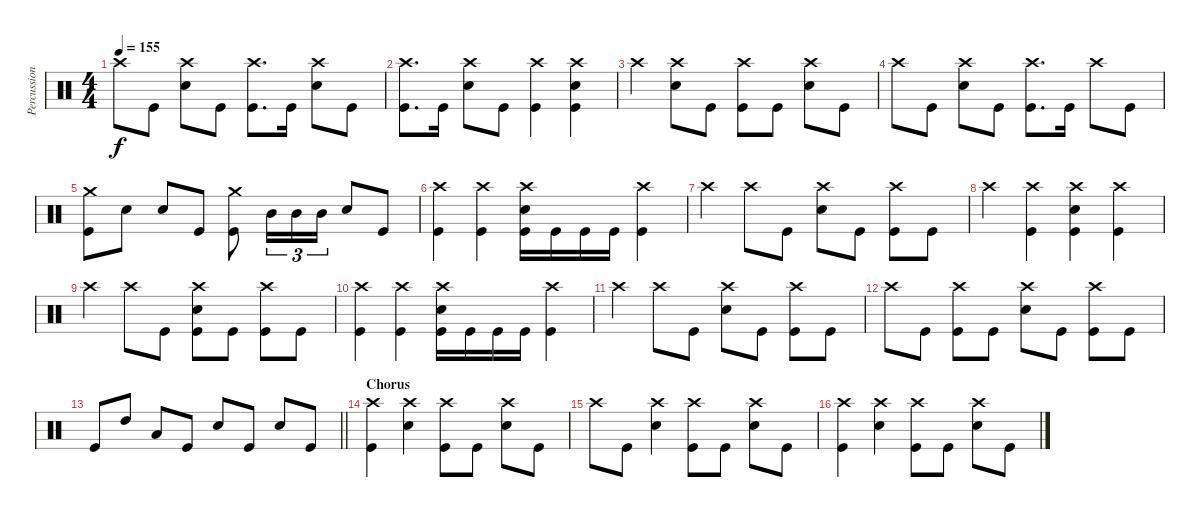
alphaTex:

\track ("Percussion" "Percussion") {instrument percussion}
\staff {score}
\articulation defaults
\ts (4 4)
\tempo 155
\clef neutral
\ks c "Crash high (hit)".8{dy f} "Kick (hit)".8
("Crash high (hit)" "Snare (hit) 2").8 "Kick (hit)".8 ("Crash high (hit)" "Kick (hit)").8{d} "Kick (hit)".16 ("Crash high (hit)" "Snare (hit) 2").8 "Kick (hit)".8 |
("Crash high (hit)" "Kick (hit)").8{d} "Kick (hit)".16 ("Crash high (hit)" "Snare (hit) 2").8 "Kick (hit)".8 ("Crash high (hit)" "Kick (hit)").4 ("Crash high (hit)" "Snare (hit) 2" "Kick (hit)").4 |
"Crash high (hit)".4 ("Crash high (hit)" "Snare (hit) 2").8 "Kick (hit)".8 ("Crash high (hit)" "Kick (hit)").8 "Kick (hit)".8 ("Crash high (hit)" "Snare (hit) 2").8 "Kick (hit)".8 |
"Crash high (hit)".8 "Kick (hit)".8 ("Crash high (hit)" "Snare (hit) 2").8 "Kick (hit)".8 ("Crash high (hit)" "Kick (hit)").8{d} "Kick (hit)".16 "Crash high (hit)".8 "Kick (hit)".8 |
("Crash medium (hit)" "Kick (hit)").8 "Snare (hit) 2".8 "Snare (hit) 2".8 "Kick (hit)".8 ("Crash medium (hit)" "Kick (hit)").8 "Mid Tom (hit)".16{tu (3 2)} "Mid Tom (hit)".16{tu (3 2)} "Mid Tom (hit)".16{tu (3 2)} "Snare (hit) 2".8 "Kick (hit)".8 |
("Crash high (hit)" "Kick (hit)").4 ("Crash high (hit)" "Kick (hit)").4 ("Crash high (hit)" "Snare (hit) 2" "Kick (hit)").16 "Kick (hit)".16 "Kick (hit)".16 "Kick (hit)".16 ("Crash high (hit)" "Kick (hit)").4 |
"Crash high (hit)".4 "Crash high (hit)".8 "Kick (hit)".8 ("Crash high (hit)" "Snare (hit) 2").8 "Kick (hit)".8 ("Crash high (hit)" "Kick (hit)").8 "Kick (hit)".8 |
"Crash high (hit)".4 ("Crash high (hit)" "Kick (hit)").4 ("Crash high (hit)" "Snare (hit) 2" "Kick (hit)").4 ("Crash high (hit)" "Kick (hit)").4 |
"Crash high (hit)".4 "Crash high (hit)".8 "Kick (hit)".8 ("Crash high (hit)" "Snare (hit) 2" "Kick (hit)").8 "Kick (hit)".8 ("Crash high (hit)" "Kick (hit)").8 "Kick (hit)".8 |
("Crash high (hit)" "Kick (hit)").4 ("Crash high (hit)" "Kick (hit)").4 ("Crash high (hit)" "Snare (hit) 2" "Kick (hit)").16 "Kick (hit)".16 "Kick (hit)".16 "Kick (hit)".16 ("Crash high (hit)" "Kick (hit)").4 |
"Crash high (hit)".4 "Crash high (hit)".8 "Kick (hit)".8 ("Crash high (hit)" "Snare (hit) 2").8 "Kick (hit)".8 ("Crash high (hit)" "Kick (hit)").8 "Kick (hit)".8 |
"Crash high (hit)".8 "Kick (hit)".8 ("Crash high (hit)" "Kick (hit)").8 "Kick (hit)".8 ("Crash high (hit)" "Snare (hit) 2").8 "Kick (hit)".8 ("Crash high (hit)" "Kick (hit)").8 "Kick (hit)".8 |
\barLineRight lightlight "Kick (hit)".8 "High Tom (hit)".8 "Low Tom (hit)".8 "Kick (hit)".8 "Snare (hit) 2".8 "Kick (hit)".8 "Snare (hit) 2".8 "Kick (hit)".8
|
\section ("" "Chorus")
("Crash high (hit)" "Kick (hit)").4 ("Crash high (hit)" "Snare (hit) 2").4 ("Crash high (hit)" "Kick (hit)").8 "Kick (hit)".8 ("Crash high (hit)" "Snare (hit) 2").8 "Kick (hit)".8 |
"Crash high (hit)".8 "Kick (hit)".8 ("Crash high (hit)" "Snare (hit) 2").4 ("Crash high (hit)" "Kick (hit)").8 "Kick (hit)".8 ("Crash high (hit)" "Snare (hit) 2").8 "Kick (hit)".8 |
("Crash high (hit)" "Kick (hit)").4 ("Crash high (hit)" "Snare (hit) 2").4 ("Crash high (hit)" "Kick (hit)").8 "Kick (hit)".8 ("Crash high (hit)" "Snare (hit) 2").8 "Kick (hit)".8
